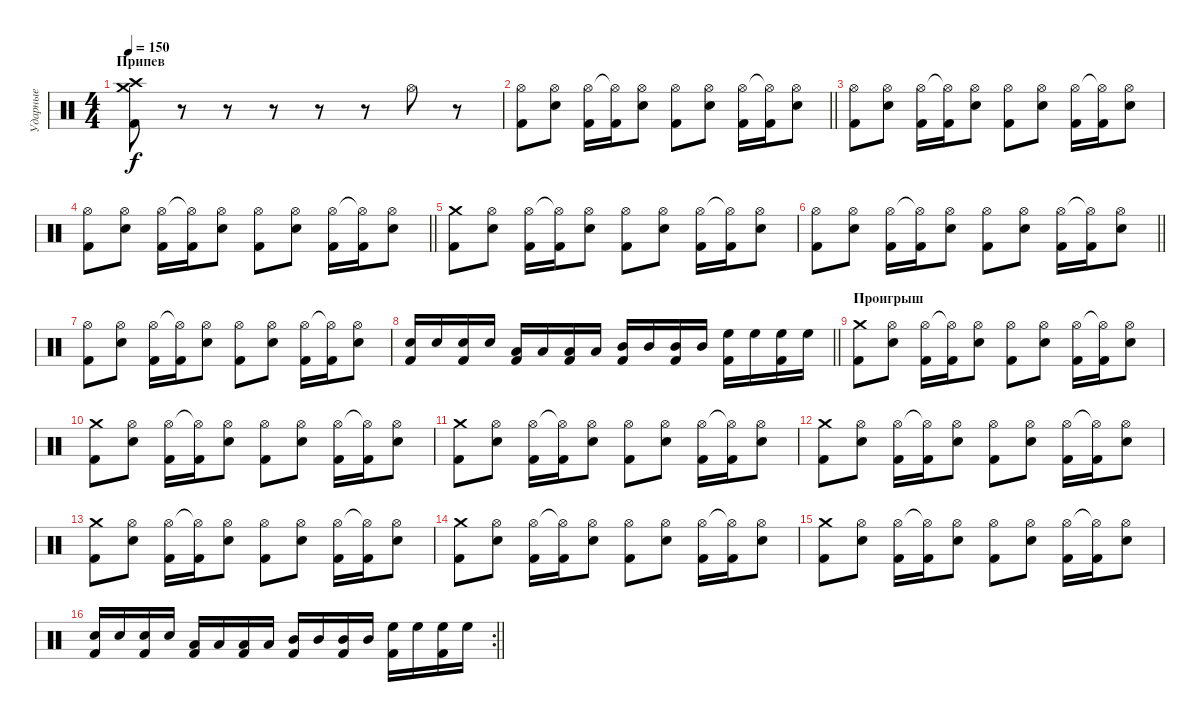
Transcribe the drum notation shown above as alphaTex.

\track ("Ударные" "Ударные") {instrument percussion}
\staff {score}
\articulation defaults
\ts (4 4)
\section ("" "Припев")
\tempo 150
\clef neutral
\ks c
("Crash medium (hit)" "Crash high (hit)" "Kick (hit) 2").8{dy f} r.8 r.8 r.8 r.8 r.8 "Hi-Hat (open)".8 r.8 |
\barLineRight lightlight
("Hi-Hat (open)" "Kick (hit) 2").8 ("Hi-Hat (open)" "Snare (hit) 2").8 ("Hi-Hat (open)" "Kick (hit) 2").16 ("Hi-Hat (open)"{t} "Kick (hit) 2").16 ("Hi-Hat (open)" "Snare (hit) 2").8 ("Hi-Hat (open)" "Kick (hit) 2").8 ("Hi-Hat (open)" "Snare (hit) 2").8 ("Hi-Hat (open)" "Kick (hit) 2").16 ("Hi-Hat (open)"{t} "Kick (hit) 2").16 ("Hi-Hat (open)" "Snare (hit) 2").8 |
("Hi-Hat (open)" "Kick (hit) 2").8 ("Hi-Hat (open)" "Snare (hit) 2").8 ("Hi-Hat (open)" "Kick (hit) 2").16 ("Hi-Hat (open)"{t} "Kick (hit) 2").16 ("Hi-Hat (open)" "Snare (hit) 2").8 ("Hi-Hat (open)" "Kick (hit) 2").8 ("Hi-Hat (open)" "Snare (hit) 2").8 ("Hi-Hat (open)" "Kick (hit) 2").16 ("Hi-Hat (open)"{t} "Kick (hit) 2").16 ("Hi-Hat (open)" "Snare (hit) 2").8 |
\barLineRight lightlight
("Hi-Hat (open)" "Kick (hit) 2").8 ("Hi-Hat (open)" "Snare (hit) 2").8 ("Hi-Hat (open)" "Kick (hit) 2").16 ("Hi-Hat (open)"{t} "Kick (hit) 2").16 ("Hi-Hat (open)" "Snare (hit) 2").8 ("Hi-Hat (open)" "Kick (hit) 2").8 ("Hi-Hat (open)" "Snare (hit) 2").8 ("Hi-Hat (open)" "Kick (hit) 2").16 ("Hi-Hat (open)"{t} "Kick (hit) 2").16 ("Hi-Hat (open)" "Snare (hit) 2").8 |
("Crash medium (hit)" "Kick (hit) 2").8 ("Hi-Hat (open)" "Snare (hit) 2").8 ("Hi-Hat (open)" "Kick (hit) 2").16 ("Hi-Hat (open)"{t} "Kick (hit) 2").16 ("Hi-Hat (open)" "Snare (hit) 2").8 ("Hi-Hat (open)" "Kick (hit) 2").8 ("Hi-Hat (open)" "Snare (hit) 2").8 ("Hi-Hat (open)" "Kick (hit) 2").16 ("Hi-Hat (open)"{t} "Kick (hit) 2").16 ("Hi-Hat (open)" "Snare (hit) 2").8 |
\barLineRight lightlight
("Hi-Hat (open)" "Kick (hit) 2").8 ("Hi-Hat (open)" "Snare (hit) 2").8 ("Hi-Hat (open)" "Kick (hit) 2").16 ("Hi-Hat (open)"{t} "Kick (hit) 2").16 ("Hi-Hat (open)" "Snare (hit) 2").8 ("Hi-Hat (open)" "Kick (hit) 2").8 ("Hi-Hat (open)" "Snare (hit) 2").8 ("Hi-Hat (open)" "Kick (hit) 2").16 ("Hi-Hat (open)"{t} "Kick (hit) 2").16 ("Hi-Hat (open)" "Snare (hit) 2").8 |
("Hi-Hat (open)" "Kick (hit) 2").8 ("Hi-Hat (open)" "Snare (hit) 2").8 ("Hi-Hat (open)" "Kick (hit) 2").16 ("Hi-Hat (open)"{t} "Kick (hit) 2").16 ("Hi-Hat (open)" "Snare (hit) 2").8 ("Hi-Hat (open)" "Kick (hit) 2").8 ("Hi-Hat (open)" "Snare (hit) 2").8 ("Hi-Hat (open)" "Kick (hit) 2").16 ("Hi-Hat (open)"{t} "Kick (hit) 2").16 ("Hi-Hat (open)" "Snare (hit) 2").8 |
\barLineRight lightlight
("Snare (hit) 2" "Kick (hit) 2").16 "Snare (hit) 2".16 ("Snare (hit) 2" "Kick (hit) 2").16 "Snare (hit) 2".16 ("Low Tom (hit)" "Kick (hit) 2").16 "Low Tom (hit)".16 ("Low Tom (hit)" "Kick (hit) 2").16 "Low Tom (hit)".16 ("Mid Tom (hit)" "Kick (hit) 2").16 "Mid Tom (hit)".16 ("Mid Tom (hit)" "Kick (hit) 2").16 "Mid Tom (hit)".16 ("High Floor Tom (hit)" "Kick (hit) 2").16 "High Floor Tom (hit)".16 ("High Floor Tom (hit)" "Kick (hit) 2").16 "High Floor Tom (hit)".16 |
\section ("" "Проигрыш")
("Crash medium (hit)" "Kick (hit) 2").8 ("Hi-Hat (open)" "Snare (hit) 2").8 ("Hi-Hat (open)" "Kick (hit) 2").16 ("Hi-Hat (open)"{t} "Kick (hit) 2").16 ("Hi-Hat (open)" "Snare (hit) 2").8 ("Hi-Hat (open)" "Kick (hit) 2").8 ("Hi-Hat (open)" "Snare (hit) 2").8 ("Hi-Hat (open)" "Kick (hit) 2").16 ("Hi-Hat (open)"{t} "Kick (hit) 2").16 ("Hi-Hat (open)" "Snare (hit) 2").8 |
("Crash medium (hit)" "Kick (hit) 2").8 ("Hi-Hat (open)" "Snare (hit) 2").8 ("Hi-Hat (open)" "Kick (hit) 2").16 ("Hi-Hat (open)"{t} "Kick (hit) 2").16 ("Hi-Hat (open)" "Snare (hit) 2").8 ("Hi-Hat (open)" "Kick (hit) 2").8 ("Hi-Hat (open)" "Snare (hit) 2").8 ("Hi-Hat (open)" "Kick (hit) 2").16 ("Hi-Hat (open)"{t} "Kick (hit) 2").16 ("Hi-Hat (open)" "Snare (hit) 2").8 |
("Crash medium (hit)" "Kick (hit) 2").8 ("Hi-Hat (open)" "Snare (hit) 2").8 ("Hi-Hat (open)" "Kick (hit) 2").16 ("Hi-Hat (open)"{t} "Kick (hit) 2").16 ("Hi-Hat (open)" "Snare (hit) 2").8 ("Hi-Hat (open)" "Kick (hit) 2").8 ("Hi-Hat (open)" "Snare (hit) 2").8 ("Hi-Hat (open)" "Kick (hit) 2").16 ("Hi-Hat (open)"{t} "Kick (hit) 2").16 ("Hi-Hat (open)" "Snare (hit) 2").8 |
("Crash medium (hit)" "Kick (hit) 2").8 ("Hi-Hat (open)" "Snare (hit) 2").8 ("Hi-Hat (open)" "Kick (hit) 2").16 ("Hi-Hat (open)"{t} "Kick (hit) 2").16 ("Hi-Hat (open)" "Snare (hit) 2").8 ("Hi-Hat (open)" "Kick (hit) 2").8 ("Hi-Hat (open)" "Snare (hit) 2").8 ("Hi-Hat (open)" "Kick (hit) 2").16 ("Hi-Hat (open)"{t} "Kick (hit) 2").16 ("Hi-Hat (open)" "Snare (hit) 2").8 |
("Crash medium (hit)" "Kick (hit) 2").8 ("Hi-Hat (open)" "Snare (hit) 2").8 ("Hi-Hat (open)" "Kick (hit) 2").16 ("Hi-Hat (open)"{t} "Kick (hit) 2").16 ("Hi-Hat (open)" "Snare (hit) 2").8 ("Hi-Hat (open)" "Kick (hit) 2").8 ("Hi-Hat (open)" "Snare (hit) 2").8 ("Hi-Hat (open)" "Kick (hit) 2").16 ("Hi-Hat (open)"{t} "Kick (hit) 2").16 ("Hi-Hat (open)" "Snare (hit) 2").8 |
("Crash medium (hit)" "Kick (hit) 2").8 ("Hi-Hat (open)" "Snare (hit) 2").8 ("Hi-Hat (open)" "Kick (hit) 2").16 ("Hi-Hat (open)"{t} "Kick (hit) 2").16 ("Hi-Hat (open)" "Snare (hit) 2").8 ("Hi-Hat (open)" "Kick (hit) 2").8 ("Hi-Hat (open)" "Snare (hit) 2").8 ("Hi-Hat (open)" "Kick (hit) 2").16 ("Hi-Hat (open)"{t} "Kick (hit) 2").16 ("Hi-Hat (open)" "Snare (hit) 2").8 |
("Crash medium (hit)" "Kick (hit) 2").8 ("Hi-Hat (open)" "Snare (hit) 2").8 ("Hi-Hat (open)" "Kick (hit) 2").16 ("Hi-Hat (open)"{t} "Kick (hit) 2").16 ("Hi-Hat (open)" "Snare (hit) 2").8 ("Hi-Hat (open)" "Kick (hit) 2").8 ("Hi-Hat (open)" "Snare (hit) 2").8 ("Hi-Hat (open)" "Kick (hit) 2").16 ("Hi-Hat (open)"{t} "Kick (hit) 2").16 ("Hi-Hat (open)" "Snare (hit) 2").8 |
\rc 2
\barLineRight lightlight
("Snare (hit) 2" "Kick (hit) 2").16 "Snare (hit) 2".16 ("Snare (hit) 2" "Kick (hit) 2").16 "Snare (hit) 2".16 ("Low Tom (hit)" "Kick (hit) 2").16 "Low Tom (hit)".16 ("Low Tom (hit)" "Kick (hit) 2").16 "Low Tom (hit)".16 ("Mid Tom (hit)" "Kick (hit) 2").16 "Mid Tom (hit)".16 ("Mid Tom (hit)" "Kick (hit) 2").16 "Mid Tom (hit)".16 ("High Floor Tom (hit)" "Kick (hit) 2").16 "High Floor Tom (hit)".16 ("High Floor Tom (hit)" "Kick (hit) 2").16 "High Floor Tom (hit)".16
